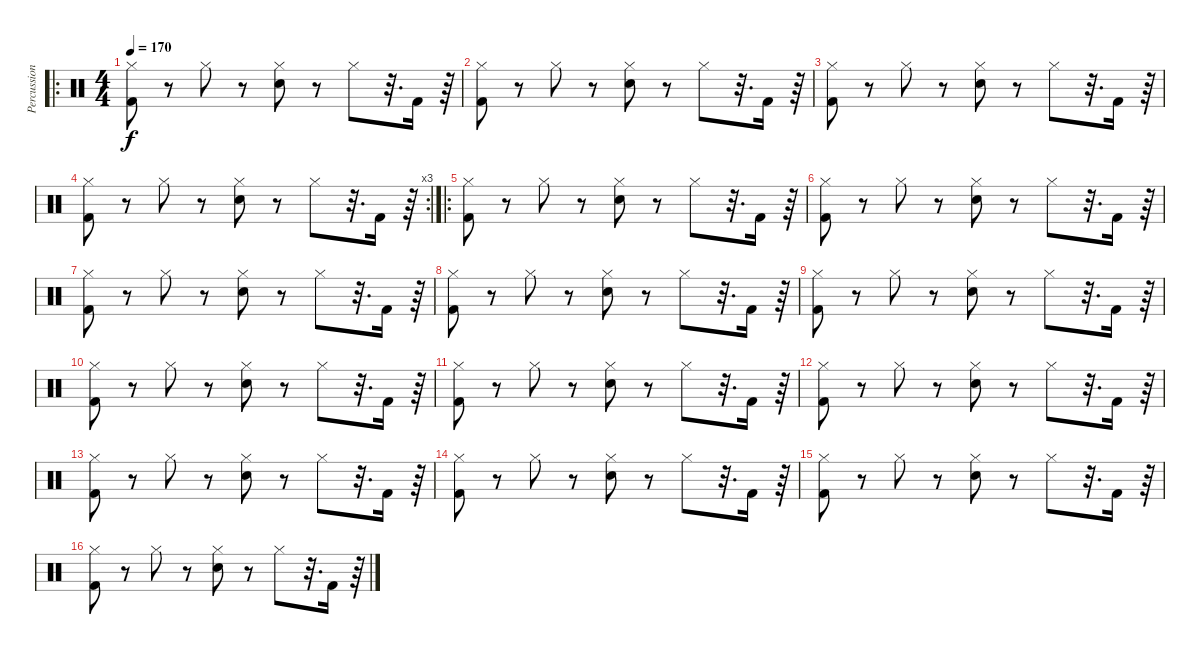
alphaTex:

\track ("Percussion" "Percussion") {instrument percussion}
\staff {score}
\articulation defaults
\ro
\ts (4 4)
\tempo 170
\clef neutral
\ks c
("Hi-Hat (closed)" "Kick (hit) 2").8{dy f} r.8 "Hi-Hat (closed)".8 r.8 ("Hi-Hat (closed)" "Electric Snare (hit)").8 r.8 "Hi-Hat (closed)".8 r.32{d} "Kick (hit) 2".16 r.64 |
("Hi-Hat (closed)" "Kick (hit) 2").8 r.8 "Hi-Hat (closed)".8 r.8 ("Hi-Hat (closed)" "Electric Snare (hit)").8 r.8 "Hi-Hat (closed)".8 r.32{d} "Kick (hit) 2".16 r.64 |
("Hi-Hat (closed)" "Kick (hit) 2").8 r.8 "Hi-Hat (closed)".8 r.8 ("Hi-Hat (closed)" "Electric Snare (hit)").8 r.8 "Hi-Hat (closed)".8 r.32{d} "Kick (hit) 2".16 r.64 |
\rc 3
("Hi-Hat (closed)" "Kick (hit) 2").8 r.8 "Hi-Hat (closed)".8 r.8 ("Hi-Hat (closed)" "Electric Snare (hit)").8 r.8 "Hi-Hat (closed)".8 r.32{d} "Kick (hit) 2".16 r.64 |
\ro
("Hi-Hat (closed)" "Kick (hit) 2").8 r.8 "Hi-Hat (closed)".8 r.8 ("Hi-Hat (closed)" "Electric Snare (hit)").8 r.8 "Hi-Hat (closed)".8 r.32{d} "Kick (hit) 2".16 r.64 |
("Hi-Hat (closed)" "Kick (hit) 2").8 r.8 "Hi-Hat (closed)".8 r.8 ("Hi-Hat (closed)" "Electric Snare (hit)").8 r.8 "Hi-Hat (closed)".8 r.32{d} "Kick (hit) 2".16 r.64 |
("Hi-Hat (closed)" "Kick (hit) 2").8 r.8 "Hi-Hat (closed)".8 r.8 ("Hi-Hat (closed)" "Electric Snare (hit)").8 r.8 "Hi-Hat (closed)".8 r.32{d} "Kick (hit) 2".16 r.64 |
("Hi-Hat (closed)" "Kick (hit) 2").8 r.8 "Hi-Hat (closed)".8 r.8 ("Hi-Hat (closed)" "Electric Snare (hit)").8 r.8 "Hi-Hat (closed)".8 r.32{d} "Kick (hit) 2".16 r.64 |
("Hi-Hat (closed)" "Kick (hit) 2").8 r.8 "Hi-Hat (closed)".8 r.8 ("Hi-Hat (closed)" "Electric Snare (hit)").8 r.8 "Hi-Hat (closed)".8 r.32{d} "Kick (hit) 2".16 r.64 |
("Hi-Hat (closed)" "Kick (hit) 2").8 r.8 "Hi-Hat (closed)".8 r.8 ("Hi-Hat (closed)" "Electric Snare (hit)").8 r.8 "Hi-Hat (closed)".8 r.32{d} "Kick (hit) 2".16 r.64 |
("Hi-Hat (closed)" "Kick (hit) 2").8 r.8 "Hi-Hat (closed)".8 r.8 ("Hi-Hat (closed)" "Electric Snare (hit)").8 r.8 "Hi-Hat (closed)".8 r.32{d} "Kick (hit) 2".16 r.64 |
("Hi-Hat (closed)" "Kick (hit) 2").8 r.8 "Hi-Hat (closed)".8 r.8 ("Hi-Hat (closed)" "Electric Snare (hit)").8 r.8 "Hi-Hat (closed)".8 r.32{d} "Kick (hit) 2".16 r.64 |
("Hi-Hat (closed)" "Kick (hit) 2").8 r.8 "Hi-Hat (closed)".8 r.8 ("Hi-Hat (closed)" "Electric Snare (hit)").8 r.8 "Hi-Hat (closed)".8 r.32{d} "Kick (hit) 2".16 r.64 |
("Hi-Hat (closed)" "Kick (hit) 2").8 r.8 "Hi-Hat (closed)".8 r.8 ("Hi-Hat (closed)" "Electric Snare (hit)").8 r.8 "Hi-Hat (closed)".8 r.32{d} "Kick (hit) 2".16 r.64 |
("Hi-Hat (closed)" "Kick (hit) 2").8 r.8 "Hi-Hat (closed)".8 r.8 ("Hi-Hat (closed)" "Electric Snare (hit)").8 r.8 "Hi-Hat (closed)".8 r.32{d} "Kick (hit) 2".16 r.64 |
("Hi-Hat (closed)" "Kick (hit) 2").8 r.8 "Hi-Hat (closed)".8 r.8 ("Hi-Hat (closed)" "Electric Snare (hit)").8 r.8 "Hi-Hat (closed)".8 r.32{d} "Kick (hit) 2".16 r.64
